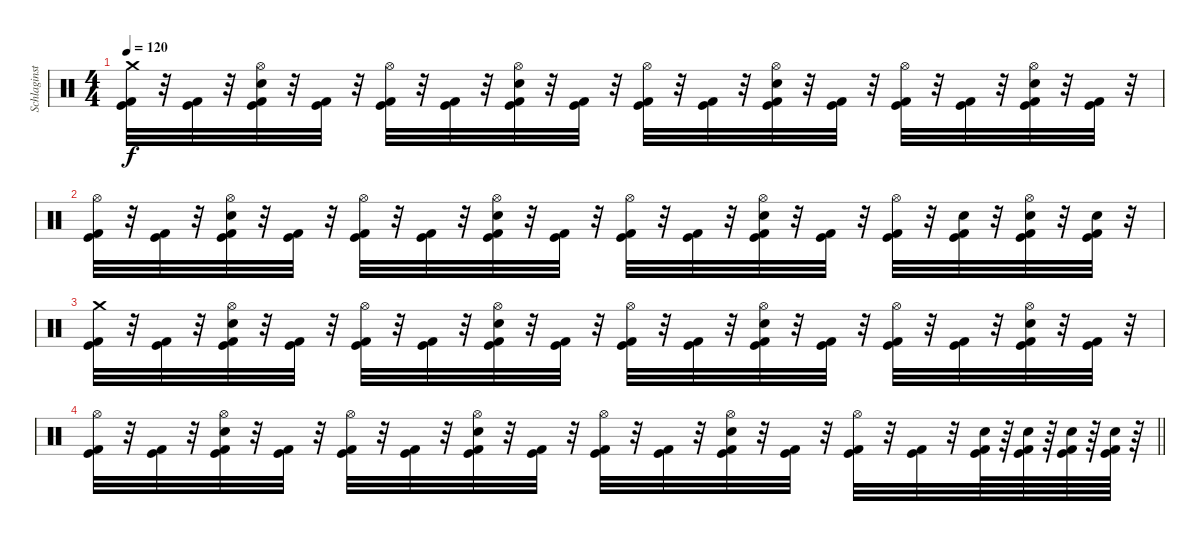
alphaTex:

\track ("Schlaginstrumente - Auswahl" "Schlaginst") {instrument percussion}
\staff {score}
\articulation defaults
\ts (4 4)
\tempo 120
\clef neutral
\ks c
("Crash medium (hit)" "Kick (hit)" "Kick (hit) 2").32{dy f} r.32 ("Kick (hit)" "Kick (hit) 2").32 r.32 ("Hi-Hat (open)" "Electric Snare (hit)" "Kick (hit)" "Kick (hit) 2").32 r.32 ("Kick (hit)" "Kick (hit) 2").32 r.32 ("Hi-Hat (open)" "Kick (hit)" "Kick (hit) 2").32 r.32 ("Kick (hit)" "Kick (hit) 2").32 r.32 ("Hi-Hat (open)" "Electric Snare (hit)" "Kick (hit)" "Kick (hit) 2").32 r.32 ("Kick (hit)" "Kick (hit) 2").32 r.32 ("Hi-Hat (open)" "Kick (hit)" "Kick (hit) 2").32 r.32 ("Kick (hit)" "Kick (hit) 2").32 r.32 ("Hi-Hat (open)" "Electric Snare (hit)" "Kick (hit)" "Kick (hit) 2").32 r.32 ("Kick (hit)" "Kick (hit) 2").32 r.32 ("Hi-Hat (open)" "Kick (hit)" "Kick (hit) 2").32 r.32 ("Kick (hit)" "Kick (hit) 2").32 r.32 ("Hi-Hat (open)" "Electric Snare (hit)" "Kick (hit)" "Kick (hit) 2").32 r.32 ("Kick (hit)" "Kick (hit) 2").32 r.32 |
("Hi-Hat (open)" "Kick (hit)" "Kick (hit) 2").32 r.32 ("Kick (hit)" "Kick (hit) 2").32 r.32 ("Hi-Hat (open)" "Electric Snare (hit)" "Kick (hit)" "Kick (hit) 2").32 r.32 ("Kick (hit)" "Kick (hit) 2").32 r.32 ("Hi-Hat (open)" "Kick (hit)" "Kick (hit) 2").32 r.32 ("Kick (hit)" "Kick (hit) 2").32 r.32 ("Hi-Hat (open)" "Electric Snare (hit)" "Kick (hit)" "Kick (hit) 2").32 r.32 ("Kick (hit)" "Kick (hit) 2").32 r.32 ("Hi-Hat (open)" "Kick (hit)" "Kick (hit) 2").32 r.32 ("Kick (hit)" "Kick (hit) 2").32 r.32 ("Hi-Hat (open)" "Electric Snare (hit)" "Kick (hit)" "Kick (hit) 2").32 r.32 ("Kick (hit)" "Kick (hit) 2").32 r.32 ("Hi-Hat (open)" "Kick (hit)" "Kick (hit) 2").32 r.32 ("Electric Snare (hit)" "Kick (hit)" "Kick (hit) 2").32 r.32 ("Hi-Hat (open)" "Electric Snare (hit)" "Kick (hit)" "Kick (hit) 2").32 r.32 ("Electric Snare (hit)" "Kick (hit)" "Kick (hit) 2").32 r.32 |
("Crash medium (hit)" "Kick (hit)" "Kick (hit) 2").32 r.32 ("Kick (hit)" "Kick (hit) 2").32 r.32 ("Hi-Hat (open)" "Electric Snare (hit)" "Kick (hit)" "Kick (hit) 2").32 r.32 ("Kick (hit)" "Kick (hit) 2").32 r.32 ("Hi-Hat (open)" "Kick (hit)" "Kick (hit) 2").32 r.32 ("Kick (hit)" "Kick (hit) 2").32 r.32 ("Hi-Hat (open)" "Electric Snare (hit)" "Kick (hit)" "Kick (hit) 2").32 r.32 ("Kick (hit)" "Kick (hit) 2").32 r.32 ("Hi-Hat (open)" "Kick (hit)" "Kick (hit) 2").32 r.32 ("Kick (hit)" "Kick (hit) 2").32 r.32 ("Hi-Hat (open)" "Electric Snare (hit)" "Kick (hit)" "Kick (hit) 2").32 r.32 ("Kick (hit)" "Kick (hit) 2").32 r.32 ("Hi-Hat (open)" "Kick (hit)" "Kick (hit) 2").32 r.32 ("Kick (hit)" "Kick (hit) 2").32 r.32 ("Hi-Hat (open)" "Electric Snare (hit)" "Kick (hit)" "Kick (hit) 2").32 r.32 ("Kick (hit)" "Kick (hit) 2").32 r.32 |
\barLineRight lightlight
("Hi-Hat (open)" "Kick (hit)" "Kick (hit) 2").32 r.32 ("Kick (hit)" "Kick (hit) 2").32 r.32 ("Hi-Hat (open)" "Electric Snare (hit)" "Kick (hit)" "Kick (hit) 2").32 r.32 ("Kick (hit)" "Kick (hit) 2").32 r.32 ("Hi-Hat (open)" "Kick (hit)" "Kick (hit) 2").32 r.32 ("Kick (hit)" "Kick (hit) 2").32 r.32 ("Hi-Hat (open)" "Electric Snare (hit)" "Kick (hit)" "Kick (hit) 2").32 r.32 ("Kick (hit)" "Kick (hit) 2").32 r.32 ("Hi-Hat (open)" "Kick (hit)" "Kick (hit) 2").32 r.32 ("Kick (hit)" "Kick (hit) 2").32 r.32 ("Hi-Hat (open)" "Electric Snare (hit)" "Kick (hit)" "Kick (hit) 2").32 r.32 ("Kick (hit)" "Kick (hit) 2").32 r.32 ("Hi-Hat (open)" "Kick (hit)" "Kick (hit) 2").32 r.32 ("Kick (hit)" "Kick (hit) 2").32 r.32 ("Electric Snare (hit)" "Kick (hit)" "Kick (hit) 2").64 r.64 ("Electric Snare (hit)" "Kick (hit)" "Kick (hit) 2").64 r.64 ("Electric Snare (hit)" "Kick (hit)" "Kick (hit) 2").64 r.64 ("Electric Snare (hit)" "Kick (hit)" "Kick (hit) 2").64 r.64
